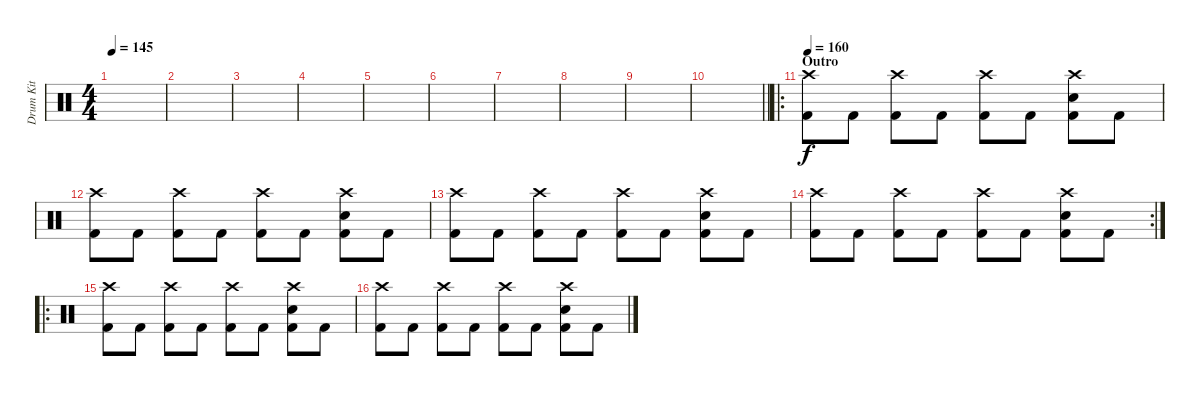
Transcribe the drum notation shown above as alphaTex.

\track ("Drum Kit" "Drum Kit") {instrument percussion}
\staff {score}
\articulation defaults
\ts (4 4)
\tempo 145
\clef neutral
\ks c
|
|
|
|
|
|
|
|
|
\barLineRight lightlight
|
\ro
\section ("" "Outro")
\tempo 160
("Crash high (hit)" "Kick (hit) 2").8 "Kick (hit) 2".8 ("Crash high (hit)" "Kick (hit) 2").8 "Kick (hit) 2".8 ("Crash high (hit)" "Kick (hit) 2").8 "Kick (hit) 2".8 ("Crash high (hit)" "Electric Snare (hit)" "Kick (hit) 2").8 "Kick (hit) 2".8 |
("Crash high (hit)" "Kick (hit) 2").8 "Kick (hit) 2".8 ("Crash high (hit)" "Kick (hit) 2").8 "Kick (hit) 2".8 ("Crash high (hit)" "Kick (hit) 2").8 "Kick (hit) 2".8 ("Crash high (hit)" "Electric Snare (hit)" "Kick (hit) 2").8 "Kick (hit) 2".8 |
("Crash high (hit)" "Kick (hit) 2").8 "Kick (hit) 2".8 ("Crash high (hit)" "Kick (hit) 2").8 "Kick (hit) 2".8 ("Crash high (hit)" "Kick (hit) 2").8 "Kick (hit) 2".8 ("Crash high (hit)" "Electric Snare (hit)" "Kick (hit) 2").8 "Kick (hit) 2".8 |
\rc 2
("Crash high (hit)" "Kick (hit) 2").8 "Kick (hit) 2".8 ("Crash high (hit)" "Kick (hit) 2").8 "Kick (hit) 2".8 ("Crash high (hit)" "Kick (hit) 2").8 "Kick (hit) 2".8 ("Crash high (hit)" "Electric Snare (hit)" "Kick (hit) 2").8 "Kick (hit) 2".8 |
\ro
("Crash high (hit)" "Kick (hit) 2").8 "Kick (hit) 2".8 ("Crash high (hit)" "Kick (hit) 2").8 "Kick (hit) 2".8 ("Crash high (hit)" "Kick (hit) 2").8 "Kick (hit) 2".8 ("Crash high (hit)" "Electric Snare (hit)" "Kick (hit) 2").8 "Kick (hit) 2".8 |
("Crash high (hit)" "Kick (hit) 2").8 "Kick (hit) 2".8 ("Crash high (hit)" "Kick (hit) 2").8 "Kick (hit) 2".8 ("Crash high (hit)" "Kick (hit) 2").8 "Kick (hit) 2".8 ("Crash high (hit)" "Electric Snare (hit)" "Kick (hit) 2").8 "Kick (hit) 2".8
